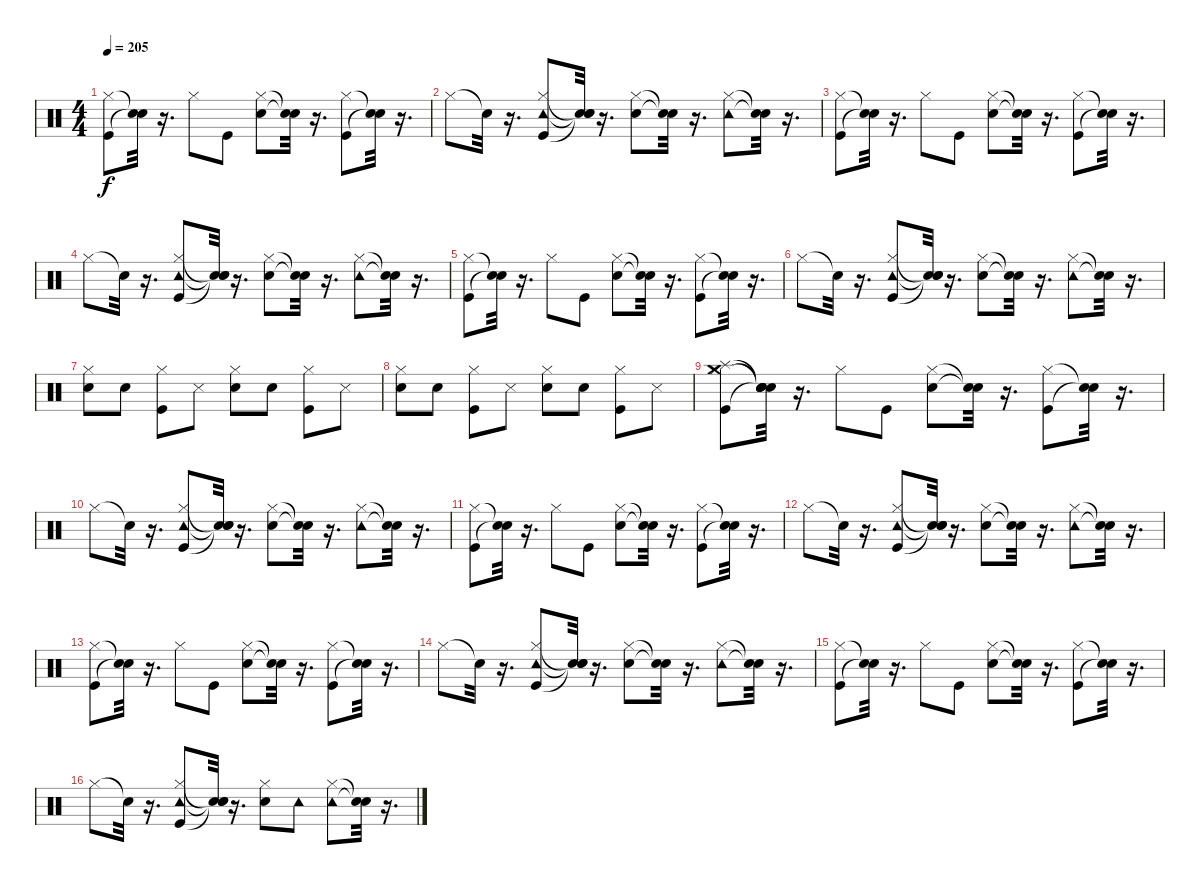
\track "" {instrument percussion}
\staff {score}
\articulation defaults
\ts (4 4)
\tempo 205
\clef neutral
\ks c
("Kick (hit)" "Hi-Hat (closed)").8{dy f} ("Snare (hit)"{t} "Snare (hit)"{t}).32 r.16{d} "Hi-Hat (closed)".8 "Kick (hit)".8 ("Hi-Hat (closed)" "Electric Snare (hit)").8 ("Snare (hit)"{t} "Snare (hit)"{t}).32 r.16{d} ("Hi-Hat (closed)" "Kick (hit)").8 ("Snare (hit)"{t} "Snare (hit)"{t}).32 r.16{d} |
"Hi-Hat (closed)".8 "Snare (hit)"{t}.32 r.16{d} ("Hi-Hat (closed)" "Kick (hit)" "Tambourine (hit)").8 ("Snare (hit)"{t} "Snare (hit)"{t} "Snare (hit)"{t}).32 r.16{d} ("Hi-Hat (closed)" "Electric Snare (hit)").8 ("Snare (hit)"{t} "Snare (hit)"{t}).32 r.16{d} ("Hi-Hat (closed)" "Tambourine (hit)").8 ("Snare (hit)"{t} "Snare (hit)"{t}).32 r.16{d} |
("Kick (hit)" "Hi-Hat (closed)").8 ("Snare (hit)"{t} "Snare (hit)"{t}).32 r.16{d} "Hi-Hat (closed)".8 "Kick (hit)".8 ("Hi-Hat (closed)" "Electric Snare (hit)").8 ("Snare (hit)"{t} "Snare (hit)"{t}).32 r.16{d} ("Hi-Hat (closed)" "Kick (hit)").8 ("Snare (hit)"{t} "Snare (hit)"{t}).32 r.16{d} |
"Hi-Hat (closed)".8 "Snare (hit)"{t}.32 r.16{d} ("Hi-Hat (closed)" "Kick (hit)" "Tambourine (hit)").8 ("Snare (hit)"{t} "Snare (hit)"{t} "Snare (hit)"{t}).32 r.16{d} ("Hi-Hat (closed)" "Electric Snare (hit)").8 ("Snare (hit)"{t} "Snare (hit)"{t}).32 r.16{d} ("Hi-Hat (closed)" "Tambourine (hit)").8 ("Snare (hit)"{t} "Snare (hit)"{t}).32 r.16{d} |
("Kick (hit)" "Hi-Hat (closed)").8 ("Snare (hit)"{t} "Snare (hit)"{t}).32 r.16{d} "Hi-Hat (closed)".8 "Kick (hit)".8 ("Hi-Hat (closed)" "Electric Snare (hit)").8 ("Snare (hit)"{t} "Snare (hit)"{t}).32 r.16{d} ("Hi-Hat (closed)" "Kick (hit)").8 ("Snare (hit)"{t} "Snare (hit)"{t}).32 r.16{d} |
"Hi-Hat (closed)".8 "Snare (hit)"{t}.32 r.16{d} ("Hi-Hat (closed)" "Kick (hit)" "Tambourine (hit)").8 ("Snare (hit)"{t} "Snare (hit)"{t} "Snare (hit)"{t}).32 r.16{d} ("Hi-Hat (closed)" "Electric Snare (hit)").8 ("Snare (hit)"{t} "Snare (hit)"{t}).32 r.16{d} ("Hi-Hat (closed)" "Tambourine (hit)").8 ("Snare (hit)"{t} "Snare (hit)"{t}).32 r.16{d} |
("Hi-Hat (closed)" "Snare (hit) 2").8 "Electric Snare (hit)".8 ("Hi-Hat (closed)" "Kick (hit)").8 "Metronome (hit)".8 ("Snare (hit) 2" "Hi-Hat (closed)").8 "Electric Snare (hit)".8 ("Kick (hit)" "Hi-Hat (closed)").8 "Metronome (hit)".8 |
("Snare (hit) 2" "Hi-Hat (closed)").8 "Electric Snare (hit)".8 ("Kick (hit)" "Hi-Hat (closed)").8 "Metronome (hit)".8 ("Snare (hit) 2" "Hi-Hat (closed)").8 "Electric Snare (hit)".8 ("Hi-Hat (closed)" "Kick (hit)").8 "Metronome (hit)".8 |
("Kick (hit)" "Hi-Hat (closed)" "Splash (hit)" "Crash medium (hit)").8 ("Snare (hit)"{t} "Snare (hit)"{t} "Snare (hit)"{t} "Snare (hit)"{t}).32 r.16{d} "Hi-Hat (closed)".8 "Kick (hit)".8 ("Hi-Hat (closed)" "Electric Snare (hit)").8 ("Snare (hit)"{t} "Snare (hit)"{t}).32 r.16{d} ("Hi-Hat (closed)" "Kick (hit)").8 ("Snare (hit)"{t} "Snare (hit)"{t}).32 r.16{d} |
"Hi-Hat (closed)".8 "Snare (hit)"{t}.32 r.16{d} ("Hi-Hat (closed)" "Kick (hit)" "Tambourine (hit)").8 ("Snare (hit)"{t} "Snare (hit)"{t} "Snare (hit)"{t}).32 r.16{d} ("Hi-Hat (closed)" "Electric Snare (hit)").8 ("Snare (hit)"{t} "Snare (hit)"{t}).32 r.16{d} ("Hi-Hat (closed)" "Tambourine (hit)").8 ("Snare (hit)"{t} "Snare (hit)"{t}).32 r.16{d} |
("Kick (hit)" "Hi-Hat (closed)").8 ("Snare (hit)"{t} "Snare (hit)"{t}).32 r.16{d} "Hi-Hat (closed)".8 "Kick (hit)".8 ("Hi-Hat (closed)" "Electric Snare (hit)").8 ("Snare (hit)"{t} "Snare (hit)"{t}).32 r.16{d} ("Hi-Hat (closed)" "Kick (hit)").8 ("Snare (hit)"{t} "Snare (hit)"{t}).32 r.16{d} |
"Hi-Hat (closed)".8 "Snare (hit)"{t}.32 r.16{d} ("Hi-Hat (closed)" "Kick (hit)" "Tambourine (hit)").8 ("Snare (hit)"{t} "Snare (hit)"{t} "Snare (hit)"{t}).32 r.16{d} ("Hi-Hat (closed)" "Electric Snare (hit)").8 ("Snare (hit)"{t} "Snare (hit)"{t}).32 r.16{d} ("Hi-Hat (closed)" "Tambourine (hit)").8 ("Snare (hit)"{t} "Snare (hit)"{t}).32 r.16{d} |
("Kick (hit)" "Hi-Hat (closed)").8 ("Snare (hit)"{t} "Snare (hit)"{t}).32 r.16{d} "Hi-Hat (closed)".8 "Kick (hit)".8 ("Hi-Hat (closed)" "Electric Snare (hit)").8 ("Snare (hit)"{t} "Snare (hit)"{t}).32 r.16{d} ("Hi-Hat (closed)" "Kick (hit)").8 ("Snare (hit)"{t} "Snare (hit)"{t}).32 r.16{d} |
"Hi-Hat (closed)".8 "Snare (hit)"{t}.32 r.16{d} ("Hi-Hat (closed)" "Kick (hit)" "Tambourine (hit)").8 ("Snare (hit)"{t} "Snare (hit)"{t} "Snare (hit)"{t}).32 r.16{d} ("Hi-Hat (closed)" "Electric Snare (hit)").8 ("Snare (hit)"{t} "Snare (hit)"{t}).32 r.16{d} ("Hi-Hat (closed)" "Tambourine (hit)").8 ("Snare (hit)"{t} "Snare (hit)"{t}).32 r.16{d} |
("Kick (hit)" "Hi-Hat (closed)").8 ("Snare (hit)"{t} "Snare (hit)"{t}).32 r.16{d} "Hi-Hat (closed)".8 "Kick (hit)".8 ("Hi-Hat (closed)" "Electric Snare (hit)").8 ("Snare (hit)"{t} "Snare (hit)"{t}).32 r.16{d} ("Hi-Hat (closed)" "Kick (hit)").8 ("Snare (hit)"{t} "Snare (hit)"{t}).32 r.16{d} |
"Hi-Hat (closed)".8 "Snare (hit)"{t}.32 r.16{d} ("Hi-Hat (closed)" "Kick (hit)" "Tambourine (hit)").8 ("Snare (hit)"{t} "Snare (hit)"{t} "Snare (hit)"{t}).32 r.16{d} ("Hi-Hat (closed)" "Electric Snare (hit)").8 "Tambourine (hit)".8 ("Hi-Hat (closed)" "Tambourine (hit)").8 ("Snare (hit)"{t} "Snare (hit)"{t}).32 r.16{d}
